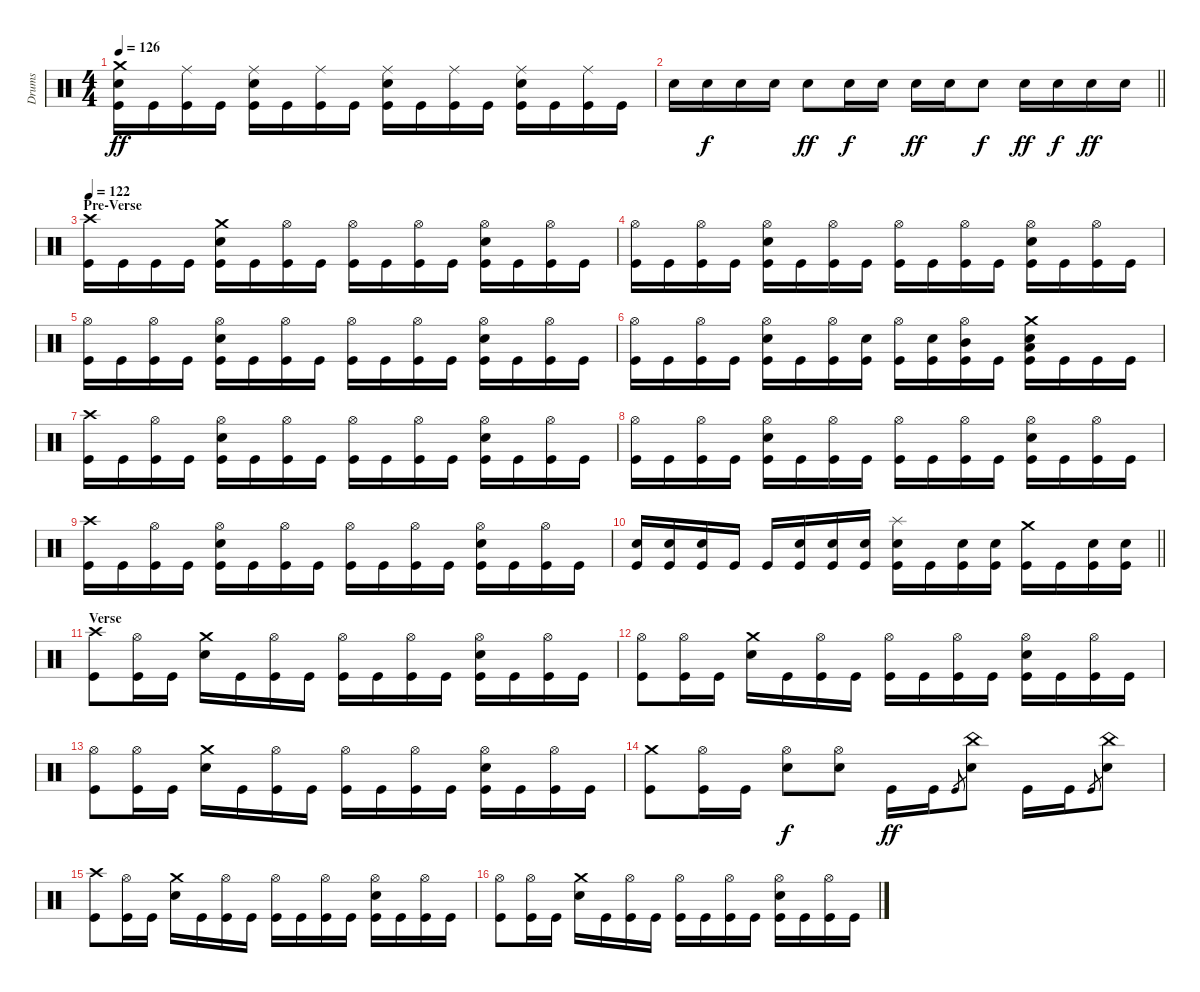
\track ("Drums" "Drums") {instrument percussion}
\staff {score}
\articulation defaults
\ts (4 4)
\tempo 126
\clef neutral
\ks c
("Crash medium (hit)" "Snare (hit) 2" "Kick (hit)").16{dy ff} "Kick (hit)".16 ("Ride (middle)" "Kick (hit)").16 "Kick (hit)".16 ("Ride (middle)" "Snare (hit) 2" "Kick (hit)").16 "Kick (hit)".16 ("Ride (middle)" "Kick (hit)").16 "Kick (hit)".16 ("Ride (middle)" "Snare (hit) 2" "Kick (hit)").16 "Kick (hit)".16 ("Ride (middle)" "Kick (hit)").16 "Kick (hit)".16 ("Ride (middle)" "Snare (hit) 2" "Kick (hit)").16 "Kick (hit)".16 ("Ride (middle)" "Kick (hit)").16 "Kick (hit)".16 |
\barLineRight lightlight "Snare (hit) 2".16 "Snare (hit) 2".16{dy f} "Snare (hit) 2".16 "Snare (hit) 2".16 "Snare (hit) 2".8{dy ff} "Snare (hit) 2".16{dy f} "Snare (hit) 2".16 "Snare (hit) 2".16{dy ff} "Snare (hit) 2".16 "Snare (hit) 2".8{dy f} "Snare (hit) 2".16{dy ff} "Snare (hit) 2".16{dy f} "Snare (hit) 2".16{dy ff} "Snare (hit) 2".16
|
\section ("" "Pre-Verse")
\tempo 122
("Crash high (hit)" "Kick (hit)").16 "Kick (hit)".16 "Kick (hit)".16 "Kick (hit)".16 ("Crash medium (hit)" "Snare (hit) 2" "Kick (hit)").16 "Kick (hit)".16 ("Hi-Hat (open)" "Kick (hit)").16 "Kick (hit)".16 ("Hi-Hat (open)" "Kick (hit)").16 "Kick (hit)".16 ("Hi-Hat (open)" "Kick (hit)").16 "Kick (hit)".16 ("Hi-Hat (open)" "Snare (hit) 2" "Kick (hit)").16 "Kick (hit)".16 ("Hi-Hat (open)" "Kick (hit)").16 "Kick (hit)".16 |
("Hi-Hat (open)" "Kick (hit)").16 "Kick (hit)".16 ("Hi-Hat (open)" "Kick (hit)").16 "Kick (hit)".16 ("Hi-Hat (open)" "Snare (hit) 2" "Kick (hit)").16 "Kick (hit)".16 ("Hi-Hat (open)" "Kick (hit)").16 "Kick (hit)".16 ("Hi-Hat (open)" "Kick (hit)").16 "Kick (hit)".16 ("Hi-Hat (open)" "Kick (hit)").16 "Kick (hit)".16 ("Hi-Hat (open)" "Snare (hit) 2" "Kick (hit)").16 "Kick (hit)".16 ("Hi-Hat (open)" "Kick (hit)").16 "Kick (hit)".16 |
("Hi-Hat (open)" "Kick (hit)").16 "Kick (hit)".16 ("Hi-Hat (open)" "Kick (hit)").16 "Kick (hit)".16 ("Hi-Hat (open)" "Snare (hit) 2" "Kick (hit)").16 "Kick (hit)".16 ("Hi-Hat (open)" "Kick (hit)").16 "Kick (hit)".16 ("Hi-Hat (open)" "Kick (hit)").16 "Kick (hit)".16 ("Hi-Hat (open)" "Kick (hit)").16 "Kick (hit)".16 ("Hi-Hat (open)" "Snare (hit) 2" "Kick (hit)").16 "Kick (hit)".16 ("Hi-Hat (open)" "Kick (hit)").16 "Kick (hit)".16 |
("Hi-Hat (open)" "Kick (hit)").16 "Kick (hit)".16 ("Hi-Hat (open)" "Kick (hit)").16 "Kick (hit)".16 ("Hi-Hat (open)" "Snare (hit) 2" "Kick (hit)").16 "Kick (hit)".16 ("Hi-Hat (open)" "Kick (hit)").16 ("Snare (hit) 2" "Kick (hit)").16 ("Hi-Hat (open)" "Kick (hit)").16 ("Snare (hit) 2" "Kick (hit)").16 ("Hi-Hat (open)" "Mid Tom (hit)" "Kick (hit)").16 "Kick (hit)".16 ("Crash medium (hit)" "Low Tom (hit)" "Snare (hit) 2" "Kick (hit)").16 "Kick (hit)".16 "Kick (hit)".16 "Kick (hit)".16 |
("Crash high (hit)" "Kick (hit)").16 "Kick (hit)".16 ("Hi-Hat (open)" "Kick (hit)").16 "Kick (hit)".16 ("Hi-Hat (open)" "Snare (hit) 2" "Kick (hit)").16 "Kick (hit)".16 ("Hi-Hat (open)" "Kick (hit)").16 "Kick (hit)".16 ("Hi-Hat (open)" "Kick (hit)").16 "Kick (hit)".16 ("Hi-Hat (open)" "Kick (hit)").16 "Kick (hit)".16 ("Hi-Hat (open)" "Snare (hit) 2" "Kick (hit)").16 "Kick (hit)".16 ("Hi-Hat (open)" "Kick (hit)").16 "Kick (hit)".16 |
("Hi-Hat (open)" "Kick (hit)").16 "Kick (hit)".16 ("Hi-Hat (open)" "Kick (hit)").16 "Kick (hit)".16 ("Hi-Hat (open)" "Snare (hit) 2" "Kick (hit)").16 "Kick (hit)".16 ("Hi-Hat (open)" "Kick (hit)").16 "Kick (hit)".16 ("Hi-Hat (open)" "Kick (hit)").16 "Kick (hit)".16 ("Hi-Hat (open)" "Kick (hit)").16 "Kick (hit)".16 ("Hi-Hat (open)" "Snare (hit) 2" "Kick (hit)").16 "Kick (hit)".16 ("Hi-Hat (open)" "Kick (hit)").16 "Kick (hit)".16 |
("Crash high (hit)" "Kick (hit)").16 "Kick (hit)".16 ("Hi-Hat (open)" "Kick (hit)").16 "Kick (hit)".16 ("Hi-Hat (open)" "Snare (hit) 2" "Kick (hit)").16 "Kick (hit)".16 ("Hi-Hat (open)" "Kick (hit)").16 "Kick (hit)".16 ("Hi-Hat (open)" "Kick (hit)").16 "Kick (hit)".16 ("Hi-Hat (open)" "Kick (hit)").16 "Kick (hit)".16 ("Hi-Hat (open)" "Snare (hit) 2" "Kick (hit)").16 "Kick (hit)".16 ("Hi-Hat (open)" "Kick (hit)").16 "Kick (hit)".16 |
\barLineRight lightlight
("Snare (hit) 2" "Kick (hit)").16 ("Snare (hit) 2" "Kick (hit)").16 ("Snare (hit) 2" "Kick (hit)").16 "Kick (hit)".16 "Kick (hit)".16 ("Snare (hit) 2" "Kick (hit)").16 ("Snare (hit) 2" "Kick (hit)").16 ("Snare (hit) 2" "Kick (hit)").16 ("Splash (hit)" "Snare (hit) 2" "Kick (hit)").16 "Kick (hit)".16 ("Snare (hit) 2" "Kick (hit)").16 ("Snare (hit) 2" "Kick (hit)").16 ("Crash medium (hit)" "Kick (hit)").16 "Kick (hit)".16 ("Snare (hit) 2" "Kick (hit)").16 ("Snare (hit) 2" "Kick (hit)").16 |
\section ("" "Verse")
("Crash high (hit)" "Kick (hit)").8 ("Hi-Hat (open)" "Kick (hit)").16 "Kick (hit)".16 ("Crash medium (hit)" "Snare (hit) 2").16 "Kick (hit)".16 ("Hi-Hat (open)" "Kick (hit)").16 "Kick (hit)".16 ("Hi-Hat (open)" "Kick (hit)").16 "Kick (hit)".16 ("Hi-Hat (open)" "Kick (hit)").16 "Kick (hit)".16 ("Hi-Hat (open)" "Snare (hit) 2" "Kick (hit)").16 "Kick (hit)".16 ("Hi-Hat (open)" "Kick (hit)").16 "Kick (hit)".16 |
("Hi-Hat (open)" "Kick (hit)").8 ("Hi-Hat (open)" "Kick (hit)").16 "Kick (hit)".16 ("Crash medium (hit)" "Snare (hit) 2").16 "Kick (hit)".16 ("Hi-Hat (open)" "Kick (hit)").16 "Kick (hit)".16 ("Hi-Hat (open)" "Kick (hit)").16 "Kick (hit)".16 ("Hi-Hat (open)" "Kick (hit)").16 "Kick (hit)".16 ("Hi-Hat (open)" "Snare (hit) 2" "Kick (hit)").16 "Kick (hit)".16 ("Hi-Hat (open)" "Kick (hit)").16 "Kick (hit)".16 |
("Hi-Hat (open)" "Kick (hit)").8 ("Hi-Hat (open)" "Kick (hit)").16 "Kick (hit)".16 ("Crash medium (hit)" "Snare (hit) 2").16 "Kick (hit)".16 ("Hi-Hat (open)" "Kick (hit)").16 "Kick (hit)".16 ("Hi-Hat (open)" "Kick (hit)").16 "Kick (hit)".16 ("Hi-Hat (open)" "Kick (hit)").16 "Kick (hit)".16 ("Hi-Hat (open)" "Snare (hit) 2" "Kick (hit)").16 "Kick (hit)".16 ("Hi-Hat (open)" "Kick (hit)").16 "Kick (hit)".16 |
("Crash medium (hit)" "Kick (hit)").8 ("Hi-Hat (open)" "Kick (hit)").16 "Kick (hit)".16 ("Hi-Hat (open)" "Snare (hit) 2").8{dy f} ("Hi-Hat (open)" "Snare (hit) 2").8 "Kick (hit)".16{dy ff} "Kick (hit)".16 "Kick (hit)".8{gr} ("China (hit)" "Snare (hit) 2").8 "Kick (hit)".16 "Kick (hit)".16 "Kick (hit)".8{gr} ("China (hit)" "Snare (hit) 2").8 |
("Crash high (hit)" "Kick (hit)").8 ("Hi-Hat (open)" "Kick (hit)").16 "Kick (hit)".16 ("Crash medium (hit)" "Snare (hit) 2").16 "Kick (hit)".16 ("Hi-Hat (open)" "Kick (hit)").16 "Kick (hit)".16 ("Hi-Hat (open)" "Kick (hit)").16 "Kick (hit)".16 ("Hi-Hat (open)" "Kick (hit)").16 "Kick (hit)".16 ("Hi-Hat (open)" "Snare (hit) 2" "Kick (hit)").16 "Kick (hit)".16 ("Hi-Hat (open)" "Kick (hit)").16 "Kick (hit)".16 |
("Hi-Hat (open)" "Kick (hit)").8 ("Hi-Hat (open)" "Kick (hit)").16 "Kick (hit)".16 ("Crash medium (hit)" "Snare (hit) 2").16 "Kick (hit)".16 ("Hi-Hat (open)" "Kick (hit)").16 "Kick (hit)".16 ("Hi-Hat (open)" "Kick (hit)").16 "Kick (hit)".16 ("Hi-Hat (open)" "Kick (hit)").16 "Kick (hit)".16 ("Hi-Hat (open)" "Snare (hit) 2" "Kick (hit)").16 "Kick (hit)".16 ("Hi-Hat (open)" "Kick (hit)").16 "Kick (hit)".16
